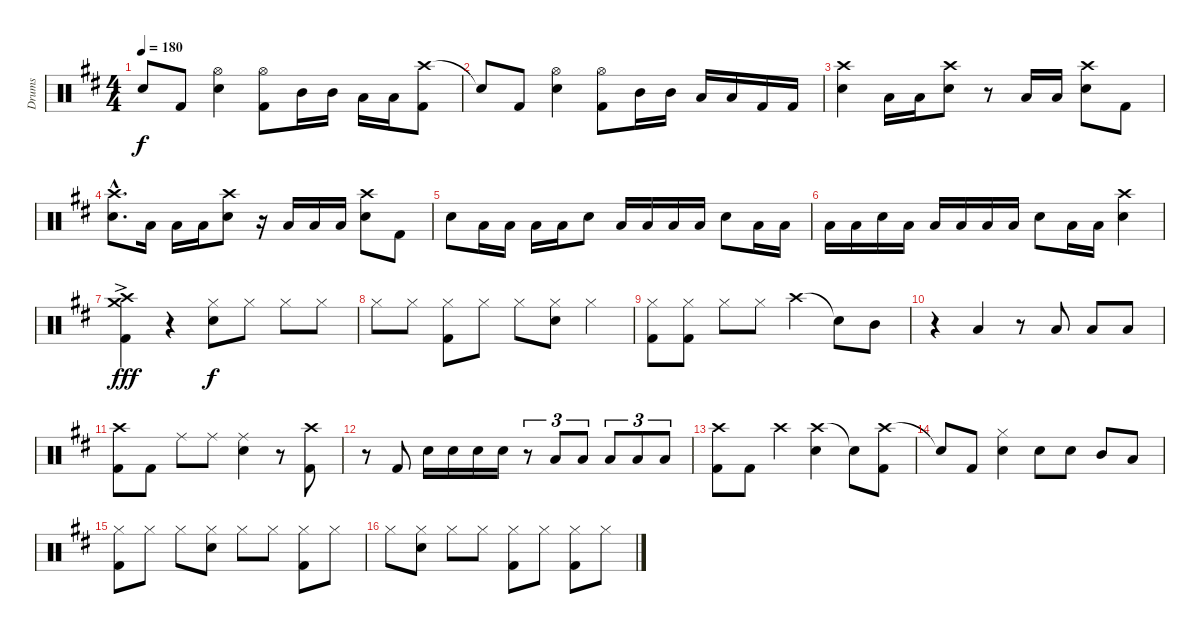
\track ("Drums" "Drums") {instrument percussion}
\staff {score}
\articulation defaults
\ts (4 4)
\tempo 180
\clef neutral
\ks bminor "Snare (hit)"{t}.8{dy f} "Kick (hit) 2".8
("Hi-Hat (open)" "Electric Snare (hit)").4 ("Hi-Hat (open)" "Kick (hit) 2").8 "Mid Tom (hit)".16 "Mid Tom (hit)".16 "Low Tom (hit)".16 "Low Tom (hit)".16 ("Crash high (hit)" "Kick (hit) 2").8 |
"Snare (hit)"{t}.8 "Kick (hit) 2".8 ("Hi-Hat (open)" "Electric Snare (hit)").4 ("Hi-Hat (open)" "Kick (hit) 2").8 "Mid Tom (hit)".16 "Mid Tom (hit)".16 "Low Tom (hit)".16 "Low Tom (hit)".16 "Kick (hit) 2".16 "Kick (hit) 2".16 |
("Crash high (hit)" "Electric Snare (hit)").4 "Low Tom (hit)".16 "Low Tom (hit)".16 ("Crash high (hit)" "Electric Snare (hit)").8 r.8 "Low Tom (hit)".16 "Low Tom (hit)".16 ("Crash high (hit)" "Electric Snare (hit)").8 "Kick (hit) 2".8 |
("Crash high (hit)"{hac} "Electric Snare (hit)"{hac}).8{d} "Low Tom (hit)".16 "Low Tom (hit)".16 "Low Tom (hit)".16 ("Crash high (hit)" "Electric Snare (hit)").8 r.16 "Low Tom (hit)".16 "Low Tom (hit)".16 "Low Tom (hit)".16 ("Crash high (hit)" "Electric Snare (hit)").8 "Kick (hit) 2".8 |
"Electric Snare (hit)".8 "Low Floor Tom (hit)".16 "Low Floor Tom (hit)".16 "Low Floor Tom (hit)".16 "Low Floor Tom (hit)".16 "Electric Snare (hit)".8 "Low Floor Tom (hit)".16 "Low Floor Tom (hit)".16 "Low Floor Tom (hit)".16 "Low Floor Tom (hit)".16 "Electric Snare (hit)".8 "Low Floor Tom (hit)".16 "Low Floor Tom (hit)".16 |
"Low Floor Tom (hit)".16 "Low Floor Tom (hit)".16 "Electric Snare (hit)".16 "Low Floor Tom (hit)".16 "Low Floor Tom (hit)".16 "Low Floor Tom (hit)".16 "Low Floor Tom (hit)".16 "Low Floor Tom (hit)".16 "Electric Snare (hit)".8 "Low Floor Tom (hit)".16 "Low Floor Tom (hit)".16 ("Crash high (hit)" "Electric Snare (hit)").4 |
("Crash high (hit)" "Crash medium (hit)"{ac} "Kick (hit) 2").4{dy fff} r.4 ("Hi-Hat (closed)" "Electric Snare (hit)").8{dy f} "Hi-Hat (closed)".8 "Hi-Hat (closed)".8 "Hi-Hat (closed)".8 |
"Hi-Hat (closed)".8 "Hi-Hat (closed)".8 ("Hi-Hat (closed)" "Kick (hit) 2").8 "Hi-Hat (closed)".8 "Hi-Hat (closed)".8 ("Hi-Hat (closed)" "Electric Snare (hit)").8 "Hi-Hat (closed)".4 |
("Hi-Hat (closed)" "Kick (hit) 2").8 ("Hi-Hat (closed)" "Kick (hit) 2").8 "Hi-Hat (closed)".8 "Hi-Hat (closed)".8 "Crash high (hit)".4 "Snare (hit)"{t}.8 "Mid Tom (hit)".8 |
r.4 "Low Tom (hit)".4 r.8 "Low Floor Tom (hit)".8 "Low Floor Tom (hit)".8 "Low Floor Tom (hit)".8 |
("Crash high (hit)" "Kick (hit) 2").8 "Kick (hit) 2".8 "Ride (middle)".8 "Ride (middle)".8 ("Ride (middle)" "Electric Snare (hit)").4 r.8 ("Crash high (hit)" "Kick (hit) 2").8 |
r.8 "Kick (hit) 2".8 "Electric Snare (hit)".16 "Electric Snare (hit)".16 "Electric Snare (hit)".16 "Electric Snare (hit)".16 r.8{tu (3 2)} "Low Floor Tom (hit)".8{tu (3 2)} "Low Floor Tom (hit)".8{tu (3 2)} "Low Floor Tom (hit)".8{tu (3 2)} "Low Floor Tom (hit)".8{tu (3 2)} "Low Floor Tom (hit)".8{tu (3 2)} |
("Crash high (hit)" "Kick (hit) 2").8 "Kick (hit) 2".8 "Crash high (hit)".4 ("Crash high (hit)" "Electric Snare (hit)").4 "Snare (hit)"{t}.8 ("Crash high (hit)" "Kick (hit) 2").8 |
"Snare (hit)"{t}.8 "Kick (hit) 2".8 ("Hi-Hat (closed)" "Electric Snare (hit)").4 "Electric Snare (hit)".8 "Electric Snare (hit)".8 "Mid Tom (hit)".8 "Low Tom (hit)".8 |
("Hi-Hat (closed)" "Kick (hit) 2").8 "Hi-Hat (closed)".8 "Hi-Hat (closed)".8 ("Hi-Hat (closed)" "Electric Snare (hit)").8 "Hi-Hat (closed)".8 "Hi-Hat (closed)".8 ("Hi-Hat (closed)" "Kick (hit) 2").8 "Hi-Hat (closed)".8 |
"Hi-Hat (closed)".8 ("Hi-Hat (closed)" "Electric Snare (hit)").8 "Hi-Hat (closed)".8 "Hi-Hat (closed)".8 ("Hi-Hat (closed)" "Kick (hit) 2").8 "Hi-Hat (closed)".8 ("Hi-Hat (closed)" "Kick (hit) 2").8 "Hi-Hat (closed)".8
